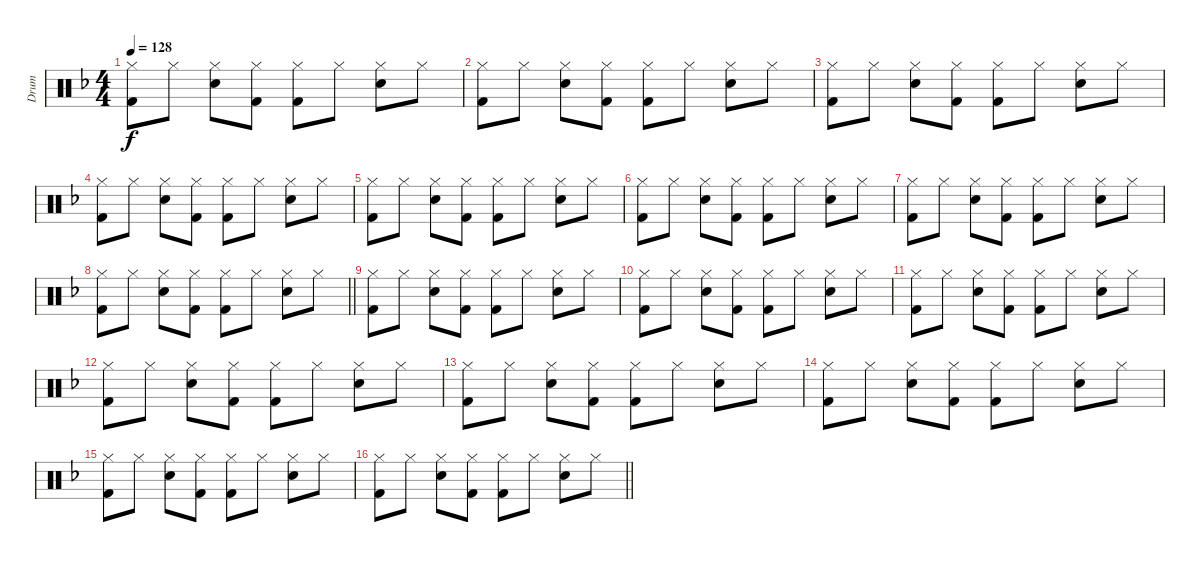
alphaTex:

\track ("Drum" "Drum") {instrument percussion}
\staff {score}
\articulation defaults
\ts (4 4)
\tempo 128
\clef neutral
\ks f
("Hi-Hat (closed)" "Kick (hit) 2").8{dy f} "Hi-Hat (closed)".8 ("Hi-Hat (closed)" "Electric Snare (hit)").8 ("Hi-Hat (closed)" "Kick (hit) 2").8 ("Hi-Hat (closed)" "Kick (hit) 2").8 "Hi-Hat (closed)".8 ("Hi-Hat (closed)" "Electric Snare (hit)").8 "Hi-Hat (closed)".8 |
("Hi-Hat (closed)" "Kick (hit) 2").8 "Hi-Hat (closed)".8 ("Hi-Hat (closed)" "Electric Snare (hit)").8 ("Hi-Hat (closed)" "Kick (hit) 2").8 ("Hi-Hat (closed)" "Kick (hit) 2").8 "Hi-Hat (closed)".8 ("Hi-Hat (closed)" "Electric Snare (hit)").8 "Hi-Hat (closed)".8 |
("Hi-Hat (closed)" "Kick (hit) 2").8 "Hi-Hat (closed)".8 ("Hi-Hat (closed)" "Electric Snare (hit)").8 ("Hi-Hat (closed)" "Kick (hit) 2").8 ("Hi-Hat (closed)" "Kick (hit) 2").8 "Hi-Hat (closed)".8 ("Hi-Hat (closed)" "Electric Snare (hit)").8 "Hi-Hat (closed)".8 |
("Hi-Hat (closed)" "Kick (hit) 2").8 "Hi-Hat (closed)".8 ("Hi-Hat (closed)" "Electric Snare (hit)").8 ("Hi-Hat (closed)" "Kick (hit) 2").8 ("Hi-Hat (closed)" "Kick (hit) 2").8 "Hi-Hat (closed)".8 ("Hi-Hat (closed)" "Electric Snare (hit)").8 "Hi-Hat (closed)".8 |
("Hi-Hat (closed)" "Kick (hit) 2").8 "Hi-Hat (closed)".8 ("Hi-Hat (closed)" "Electric Snare (hit)").8 ("Hi-Hat (closed)" "Kick (hit) 2").8 ("Hi-Hat (closed)" "Kick (hit) 2").8 "Hi-Hat (closed)".8 ("Hi-Hat (closed)" "Electric Snare (hit)").8 "Hi-Hat (closed)".8 |
("Hi-Hat (closed)" "Kick (hit) 2").8 "Hi-Hat (closed)".8 ("Hi-Hat (closed)" "Electric Snare (hit)").8 ("Hi-Hat (closed)" "Kick (hit) 2").8 ("Hi-Hat (closed)" "Kick (hit) 2").8 "Hi-Hat (closed)".8 ("Hi-Hat (closed)" "Electric Snare (hit)").8 "Hi-Hat (closed)".8 |
("Hi-Hat (closed)" "Kick (hit) 2").8 "Hi-Hat (closed)".8 ("Hi-Hat (closed)" "Electric Snare (hit)").8 ("Hi-Hat (closed)" "Kick (hit) 2").8 ("Hi-Hat (closed)" "Kick (hit) 2").8 "Hi-Hat (closed)".8 ("Hi-Hat (closed)" "Electric Snare (hit)").8 "Hi-Hat (closed)".8 |
\barLineRight lightlight
("Hi-Hat (closed)" "Kick (hit) 2").8 "Hi-Hat (closed)".8 ("Hi-Hat (closed)" "Electric Snare (hit)").8 ("Hi-Hat (closed)" "Kick (hit) 2").8 ("Hi-Hat (closed)" "Kick (hit) 2").8 "Hi-Hat (closed)".8 ("Hi-Hat (closed)" "Electric Snare (hit)").8 "Hi-Hat (closed)".8 |
("Hi-Hat (closed)" "Kick (hit) 2").8 "Hi-Hat (closed)".8 ("Hi-Hat (closed)" "Electric Snare (hit)").8 ("Hi-Hat (closed)" "Kick (hit) 2").8 ("Hi-Hat (closed)" "Kick (hit) 2").8 "Hi-Hat (closed)".8 ("Hi-Hat (closed)" "Electric Snare (hit)").8 "Hi-Hat (closed)".8 |
("Hi-Hat (closed)" "Kick (hit) 2").8 "Hi-Hat (closed)".8 ("Hi-Hat (closed)" "Electric Snare (hit)").8 ("Hi-Hat (closed)" "Kick (hit) 2").8 ("Hi-Hat (closed)" "Kick (hit) 2").8 "Hi-Hat (closed)".8 ("Hi-Hat (closed)" "Electric Snare (hit)").8 "Hi-Hat (closed)".8 |
("Hi-Hat (closed)" "Kick (hit) 2").8 "Hi-Hat (closed)".8 ("Hi-Hat (closed)" "Electric Snare (hit)").8 ("Hi-Hat (closed)" "Kick (hit) 2").8 ("Hi-Hat (closed)" "Kick (hit) 2").8 "Hi-Hat (closed)".8 ("Hi-Hat (closed)" "Electric Snare (hit)").8 "Hi-Hat (closed)".8 |
("Hi-Hat (closed)" "Kick (hit) 2").8 "Hi-Hat (closed)".8 ("Hi-Hat (closed)" "Electric Snare (hit)").8 ("Hi-Hat (closed)" "Kick (hit) 2").8 ("Hi-Hat (closed)" "Kick (hit) 2").8 "Hi-Hat (closed)".8 ("Hi-Hat (closed)" "Electric Snare (hit)").8 "Hi-Hat (closed)".8 |
("Hi-Hat (closed)" "Kick (hit) 2").8 "Hi-Hat (closed)".8 ("Hi-Hat (closed)" "Electric Snare (hit)").8 ("Hi-Hat (closed)" "Kick (hit) 2").8 ("Hi-Hat (closed)" "Kick (hit) 2").8 "Hi-Hat (closed)".8 ("Hi-Hat (closed)" "Electric Snare (hit)").8 "Hi-Hat (closed)".8 |
("Hi-Hat (closed)" "Kick (hit) 2").8 "Hi-Hat (closed)".8 ("Hi-Hat (closed)" "Electric Snare (hit)").8 ("Hi-Hat (closed)" "Kick (hit) 2").8 ("Hi-Hat (closed)" "Kick (hit) 2").8 "Hi-Hat (closed)".8 ("Hi-Hat (closed)" "Electric Snare (hit)").8 "Hi-Hat (closed)".8 |
("Hi-Hat (closed)" "Kick (hit) 2").8 "Hi-Hat (closed)".8 ("Hi-Hat (closed)" "Electric Snare (hit)").8 ("Hi-Hat (closed)" "Kick (hit) 2").8 ("Hi-Hat (closed)" "Kick (hit) 2").8 "Hi-Hat (closed)".8 ("Hi-Hat (closed)" "Electric Snare (hit)").8 "Hi-Hat (closed)".8 |
\barLineRight lightlight
("Hi-Hat (closed)" "Kick (hit) 2").8 "Hi-Hat (closed)".8 ("Hi-Hat (closed)" "Electric Snare (hit)").8 ("Hi-Hat (closed)" "Kick (hit) 2").8 ("Hi-Hat (closed)" "Kick (hit) 2").8 "Hi-Hat (closed)".8 ("Hi-Hat (closed)" "Electric Snare (hit)").8 "Hi-Hat (closed)".8
